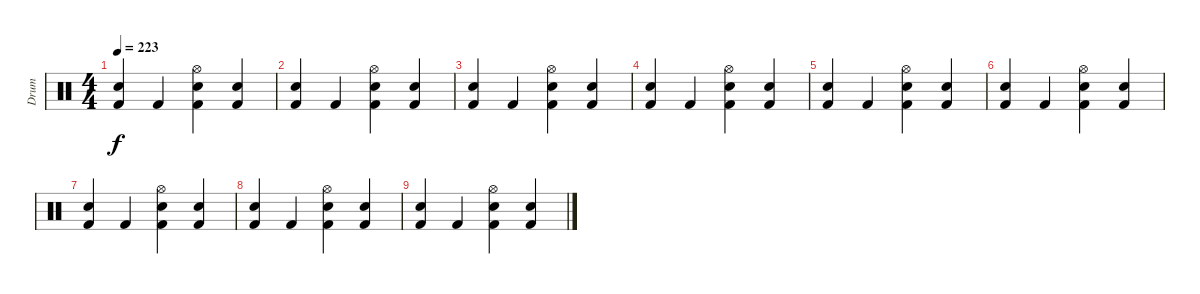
\track ("Drum" "Drum") {instrument percussion}
\staff {score}
\articulation defaults
\ts (4 4)
\tempo 223
\clef neutral
\ks c
("Kick (hit) 2" "Electric Snare (hit)").4{dy f} "Kick (hit) 2".4 ("Hi-Hat (open)" "Kick (hit) 2" "Electric Snare (hit)").4 ("Kick (hit) 2" "Electric Snare (hit)").4 |
("Kick (hit) 2" "Electric Snare (hit)").4 "Kick (hit) 2".4 ("Hi-Hat (open)" "Kick (hit) 2" "Electric Snare (hit)").4 ("Kick (hit) 2" "Electric Snare (hit)").4 |
("Kick (hit) 2" "Electric Snare (hit)").4 "Kick (hit) 2".4 ("Hi-Hat (open)" "Kick (hit) 2" "Electric Snare (hit)").4 ("Kick (hit) 2" "Electric Snare (hit)").4 |
("Kick (hit) 2" "Electric Snare (hit)").4 "Kick (hit) 2".4 ("Hi-Hat (open)" "Kick (hit) 2" "Electric Snare (hit)").4 ("Kick (hit) 2" "Electric Snare (hit)").4 |
("Kick (hit) 2" "Electric Snare (hit)").4 "Kick (hit) 2".4 ("Hi-Hat (open)" "Kick (hit) 2" "Electric Snare (hit)").4 ("Kick (hit) 2" "Electric Snare (hit)").4 |
("Kick (hit) 2" "Electric Snare (hit)").4 "Kick (hit) 2".4 ("Hi-Hat (open)" "Kick (hit) 2" "Electric Snare (hit)").4 ("Kick (hit) 2" "Electric Snare (hit)").4 |
("Kick (hit) 2" "Electric Snare (hit)").4 "Kick (hit) 2".4 ("Hi-Hat (open)" "Kick (hit) 2" "Electric Snare (hit)").4 ("Kick (hit) 2" "Electric Snare (hit)").4 |
("Kick (hit) 2" "Electric Snare (hit)").4 "Kick (hit) 2".4 ("Hi-Hat (open)" "Kick (hit) 2" "Electric Snare (hit)").4 ("Kick (hit) 2" "Electric Snare (hit)").4 |
("Kick (hit) 2" "Electric Snare (hit)").4 "Kick (hit) 2".4 ("Hi-Hat (open)" "Kick (hit) 2" "Electric Snare (hit)").4 ("Kick (hit) 2" "Electric Snare (hit)").4
